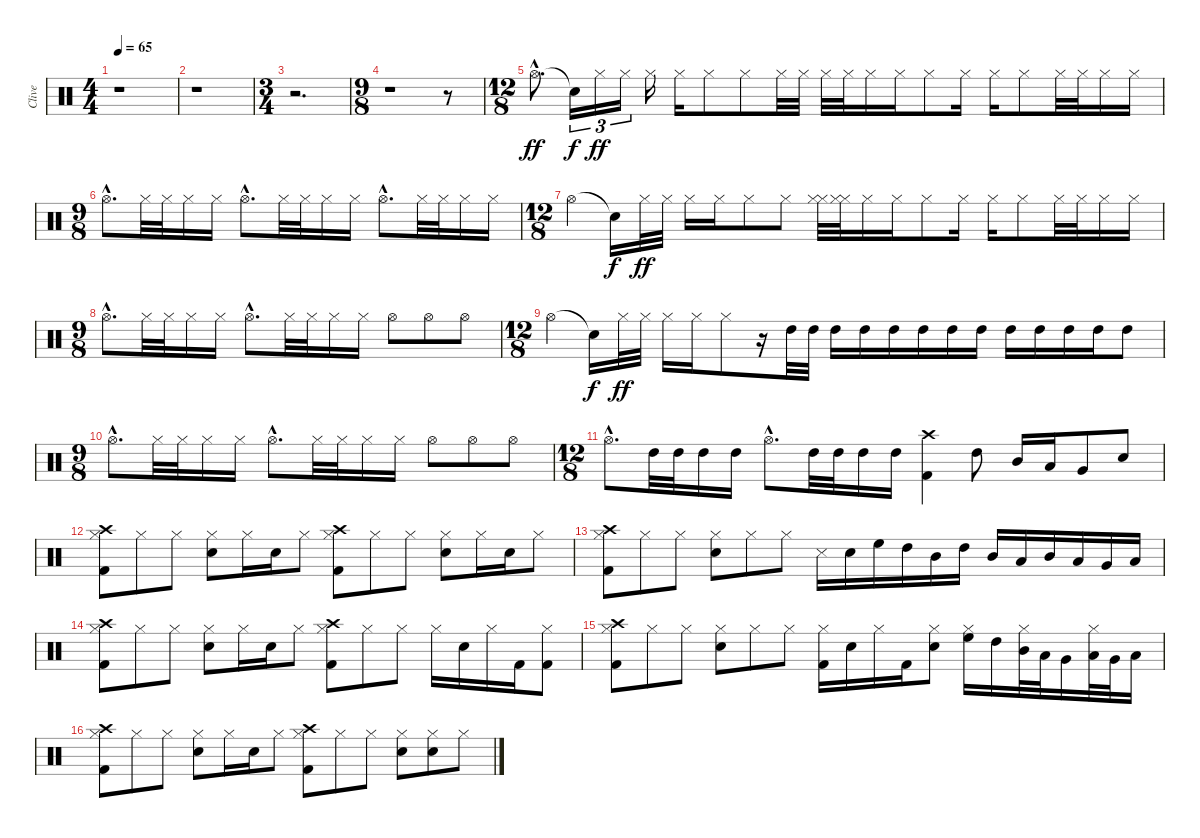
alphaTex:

\track ("Clive" "Clive") {instrument percussion}
\staff {score}
\articulation defaults
\ts (4 4)
\tempo 65
\clef neutral
\ks c
r.1{dy ff} |
r.1 |
\ts (3 4)
r.2{d} |
\ts (9 8)
r.1 r.8 |
\ts (12 8)
"Hi-Hat (open)"{hac}.8{d} "Snare (hit)"{t}.16{tu (3 2) dy f} "Hi-Hat (closed)".16{tu (3 2) dy ff} "Hi-Hat (closed)".16{tu (3 2)} "Hi-Hat (closed)".16 "Hi-Hat (closed)".16 "Hi-Hat (closed)".8 "Hi-Hat (closed)".8 "Hi-Hat (closed)".32{volume 0} "Hi-Hat (closed)".32{volume 4} "Hi-Hat (closed)".32{volume 8} "Hi-Hat (closed)".32{volume 12} "Hi-Hat (closed)".16{volume 16} "Hi-Hat (closed)".16{volume 12} "Hi-Hat (closed)".8 "Hi-Hat (closed)".16 "Hi-Hat (closed)".16 "Hi-Hat (closed)".8 "Hi-Hat (closed)".32 "Hi-Hat (closed)".32 "Hi-Hat (closed)".16 "Hi-Hat (closed)".16 |
\ts (9 8)
"Hi-Hat (open)"{hac}.8{d} "Hi-Hat (closed)".32 "Hi-Hat (closed)".32 "Hi-Hat (closed)".16 "Hi-Hat (closed)".16 "Hi-Hat (open)"{hac}.8{d} "Hi-Hat (closed)".32 "Hi-Hat (closed)".32 "Hi-Hat (closed)".16 "Hi-Hat (closed)".16 "Hi-Hat (open)"{hac}.8{d} "Hi-Hat (closed)".32 "Hi-Hat (closed)".32 "Hi-Hat (closed)".16 "Hi-Hat (closed)".16 |
\ts (12 8)
"Hi-Hat (open)".4 "Snare (hit)"{t}.16{dy f} "Hi-Hat (closed)".32{dy ff} "Hi-Hat (closed)".32 "Hi-Hat (closed)".16 "Hi-Hat (closed)".16 "Hi-Hat (closed)".8 "Hi-Hat (closed)".8 ("Hi-Hat (closed)" "Hi-Hat (closed)").32{volume 0} ("Hi-Hat (closed)" "Hi-Hat (closed)").32{volume 8} "Hi-Hat (closed)".16{volume 16} "Hi-Hat (closed)".16{volume 12} "Hi-Hat (closed)".8 "Hi-Hat (closed)".16 "Hi-Hat (closed)".16 "Hi-Hat (closed)".8 "Hi-Hat (closed)".32 "Hi-Hat (closed)".32 "Hi-Hat (closed)".16 "Hi-Hat (closed)".16 |
\ts (9 8)
"Hi-Hat (open)"{hac}.8{d} "Hi-Hat (closed)".32 "Hi-Hat (closed)".32 "Hi-Hat (closed)".16 "Hi-Hat (closed)".16 "Hi-Hat (open)"{hac}.8{d} "Hi-Hat (closed)".32 "Hi-Hat (closed)".32 "Hi-Hat (closed)".16 "Hi-Hat (closed)".16 "Hi-Hat (open)".8 "Hi-Hat (open)".8 "Hi-Hat (open)".8 |
\ts (12 8)
"Hi-Hat (open)".4 "Snare (hit)"{t}.16{dy f} "Hi-Hat (closed)".32{dy ff} "Hi-Hat (closed)".32 "Hi-Hat (closed)".16 "Hi-Hat (closed)".16 "Hi-Hat (closed)".8 r.16 "High Tom (hit)".32{volume 0} "High Tom (hit)".32{volume 1} "High Tom (hit)".16{volume 2} "High Tom (hit)".16{volume 4} "High Tom (hit)".16{volume 6} "High Tom (hit)".16{volume 8} "High Tom (hit)".16{volume 10} "High Tom (hit)".16{volume 12} "High Tom (hit)".16{volume 14} "High Tom (hit)".16{volume 16} "High Tom (hit)".16 "High Tom (hit)".16 "High Tom (hit)".8 |
\ts (9 8)
"Hi-Hat (open)"{hac}.8{d} "Hi-Hat (closed)".32{volume 12} "Hi-Hat (closed)".32 "Hi-Hat (closed)".16 "Hi-Hat (closed)".16 "Hi-Hat (open)"{hac}.8{d} "Hi-Hat (closed)".32 "Hi-Hat (closed)".32 "Hi-Hat (closed)".16 "Hi-Hat (closed)".16 "Hi-Hat (open)".8 "Hi-Hat (open)".8 "Hi-Hat (open)".8 |
\ts (12 8)
"Hi-Hat (open)"{hac}.8{d} "High Tom (hit)".32{volume 0} "High Tom (hit)".32{volume 4} "High Tom (hit)".16{volume 8} "High Tom (hit)".16{volume 16} "Hi-Hat (open)"{hac}.8{d} "High Tom (hit)".32{volume 0} "High Tom (hit)".32{volume 4} "High Tom (hit)".16{volume 8} "High Tom (hit)".16{volume 16} ("Kick (hit) 2" "Crash high (hit)").4 "High Tom (hit)".8 "Mid Tom (hit)".16 "Low Tom (hit)".16 "Very Low Tom (hit)".8 "Snare (hit) 2".8 |
("Kick (hit) 2" "Hi-Hat (closed)" "Crash high (hit)").8 "Hi-Hat (closed)".8{volume 12} "Hi-Hat (closed)".8 ("Snare (hit) 2" "Hi-Hat (closed)").8 "Hi-Hat (closed)".16 "Snare (hit) 2".16 "Hi-Hat (closed)".8 ("Kick (hit) 2" "Hi-Hat (closed)" "Crash high (hit)").8 "Hi-Hat (closed)".8 "Hi-Hat (closed)".8 ("Snare (hit) 2" "Hi-Hat (closed)").8 "Hi-Hat (closed)".16 "Snare (hit) 2".16 "Hi-Hat (closed)".8 |
("Kick (hit) 2" "Hi-Hat (closed)" "Crash high (hit)").8 "Hi-Hat (closed)".8 "Hi-Hat (closed)".8 ("Snare (hit) 2" "Hi-Hat (closed)").8 "Hi-Hat (closed)".8 "Hi-Hat (closed)".8 "Snare (side stick) 3".16 "Snare (hit) 2".16 "High Floor Tom (hit)".16 "High Tom (hit)".16 "Mid Tom (hit)".16 "High Tom (hit)".16 "Mid Tom (hit)".16 "Low Tom (hit)".16 "Mid Tom (hit)".16 "Low Tom (hit)".16 "Very Low Tom (hit)".16 "Low Floor Tom (hit)".16 |
("Kick (hit) 2" "Hi-Hat (closed)" "Crash high (hit)").8 "Hi-Hat (closed)".8 "Hi-Hat (closed)".8 ("Snare (hit) 2" "Hi-Hat (closed)").8 "Hi-Hat (closed)".16 "Snare (hit) 2".16 "Hi-Hat (closed)".8 ("Kick (hit) 2" "Hi-Hat (closed)" "Crash high (hit)").8 "Hi-Hat (closed)".8 "Hi-Hat (closed)".8 "Hi-Hat (closed)".16 "Snare (hit) 2".16 "Hi-Hat (closed)".16 "Kick (hit) 2".16 ("Kick (hit) 2" "Hi-Hat (closed)").8 |
("Kick (hit) 2" "Hi-Hat (closed)" "Crash high (hit)").8 "Hi-Hat (closed)".8 "Hi-Hat (closed)".8 ("Snare (hit) 2" "Hi-Hat (closed)").8 "Hi-Hat (closed)".8 "Hi-Hat (closed)".8 ("Kick (hit) 2" "Hi-Hat (closed)").16 "Snare (hit) 2".16 "Hi-Hat (closed)".16 "Kick (hit) 2".16 ("Snare (hit) 2" "Hi-Hat (closed)").8 ("Hi-Hat (closed)" "High Floor Tom (hit)").16 "High Tom (hit)".16 ("Hi-Hat (closed)" "Mid Tom (hit)").32 "Low Tom (hit)".32 "Very Low Tom (hit)".16 ("Hi-Hat (closed)" "Low Tom (hit)").32 "Very Low Tom (hit)".32 "Low Floor Tom (hit)".16 |
("Kick (hit) 2" "Hi-Hat (closed)" "Crash high (hit)").8 "Hi-Hat (closed)".8 "Hi-Hat (closed)".8 ("Snare (hit) 2" "Hi-Hat (closed)").8 "Hi-Hat (closed)".16 "Snare (hit) 2".16 "Hi-Hat (closed)".8 ("Kick (hit) 2" "Hi-Hat (closed)" "Crash high (hit)").8 "Hi-Hat (closed)".8 "Hi-Hat (closed)".8 ("Snare (hit) 2" "Hi-Hat (closed)").8 ("Snare (hit) 2" "Hi-Hat (closed)").8 "Hi-Hat (closed)".8
